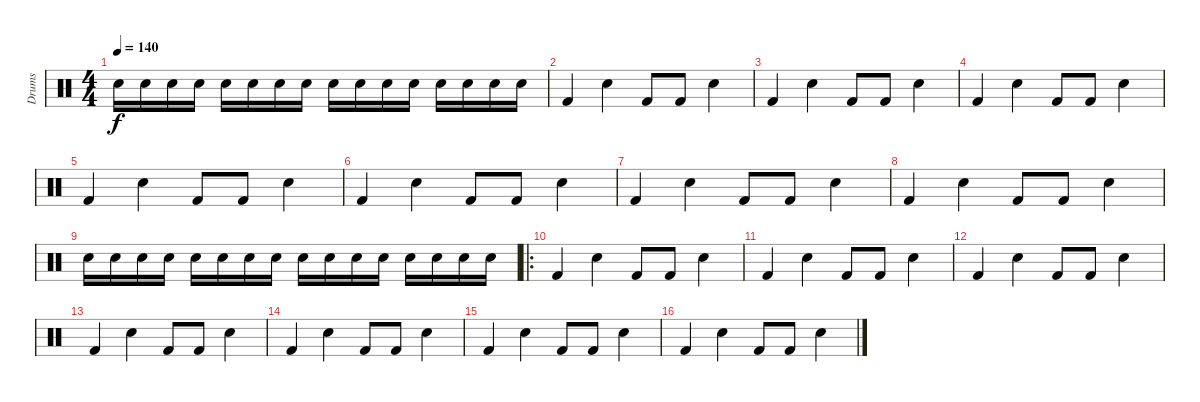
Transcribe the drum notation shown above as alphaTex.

\track ("Drums" "Drums") {instrument percussion}
\staff {score}
\articulation defaults
\ts (4 4)
\tempo 140
\clef neutral
\ks c "Electric Snare (hit)".16{dy f} "Electric Snare (hit)".16 "Electric Snare (hit)".16 "Electric Snare (hit)".16 "Electric Snare (hit)".16 "Electric Snare (hit)".16 "Electric Snare (hit)".16 "Electric Snare (hit)".16 "Electric Snare (hit)".16 "Electric Snare (hit)".16 "Electric Snare (hit)".16 "Electric Snare (hit)".16 "Electric Snare (hit)".16 "Electric Snare (hit)".16 "Electric Snare (hit)".16 "Electric Snare (hit)".16
|
"Kick (hit) 2".4 "Electric Snare (hit)".4 "Kick (hit) 2".8 "Kick (hit) 2".8 "Electric Snare (hit)".4 |
"Kick (hit) 2".4 "Electric Snare (hit)".4 "Kick (hit) 2".8 "Kick (hit) 2".8 "Electric Snare (hit)".4 |
"Kick (hit) 2".4 "Electric Snare (hit)".4 "Kick (hit) 2".8 "Kick (hit) 2".8 "Electric Snare (hit)".4 |
"Kick (hit) 2".4 "Electric Snare (hit)".4 "Kick (hit) 2".8 "Kick (hit) 2".8 "Electric Snare (hit)".4 |
"Kick (hit) 2".4 "Electric Snare (hit)".4 "Kick (hit) 2".8 "Kick (hit) 2".8 "Electric Snare (hit)".4 |
"Kick (hit) 2".4 "Electric Snare (hit)".4 "Kick (hit) 2".8 "Kick (hit) 2".8 "Electric Snare (hit)".4 |
"Kick (hit) 2".4 "Electric Snare (hit)".4 "Kick (hit) 2".8 "Kick (hit) 2".8 "Electric Snare (hit)".4 |
"Electric Snare (hit)".16 "Electric Snare (hit)".16 "Electric Snare (hit)".16 "Electric Snare (hit)".16 "Electric Snare (hit)".16 "Electric Snare (hit)".16 "Electric Snare (hit)".16 "Electric Snare (hit)".16 "Electric Snare (hit)".16 "Electric Snare (hit)".16 "Electric Snare (hit)".16 "Electric Snare (hit)".16 "Electric Snare (hit)".16 "Electric Snare (hit)".16 "Electric Snare (hit)".16 "Electric Snare (hit)".16 |
\ro "Kick (hit) 2".4 "Electric Snare (hit)".4 "Kick (hit) 2".8 "Kick (hit) 2".8 "Electric Snare (hit)".4
|
"Kick (hit) 2".4 "Electric Snare (hit)".4 "Kick (hit) 2".8 "Kick (hit) 2".8 "Electric Snare (hit)".4 |
"Kick (hit) 2".4 "Electric Snare (hit)".4 "Kick (hit) 2".8 "Kick (hit) 2".8 "Electric Snare (hit)".4 |
"Kick (hit) 2".4 "Electric Snare (hit)".4 "Kick (hit) 2".8 "Kick (hit) 2".8 "Electric Snare (hit)".4 |
"Kick (hit) 2".4 "Electric Snare (hit)".4 "Kick (hit) 2".8 "Kick (hit) 2".8 "Electric Snare (hit)".4 |
"Kick (hit) 2".4 "Electric Snare (hit)".4 "Kick (hit) 2".8 "Kick (hit) 2".8 "Electric Snare (hit)".4 |
"Kick (hit) 2".4 "Electric Snare (hit)".4 "Kick (hit) 2".8 "Kick (hit) 2".8 "Electric Snare (hit)".4
